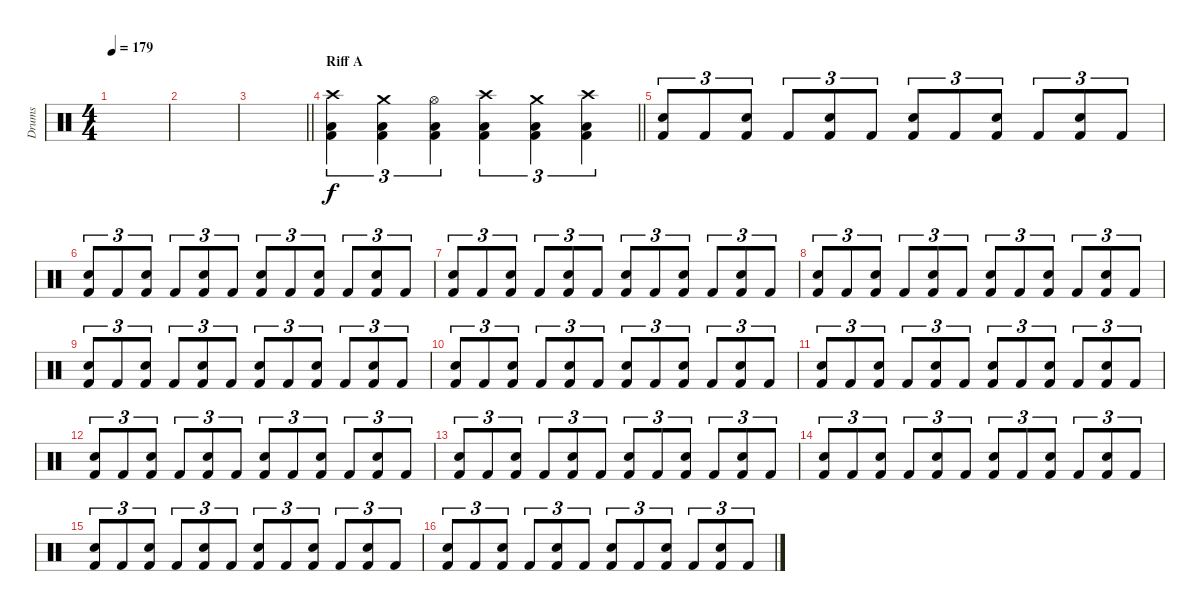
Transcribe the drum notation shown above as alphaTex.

\track ("Drums" "Drums") {instrument percussion}
\staff {score}
\articulation defaults
\ts (4 4)
\tempo 179
\clef neutral
\ks c
|
|
\barLineRight lightlight
|
\section ("" "Riff A")
\barLineRight lightlight
("Crash high (hit)" "Low Floor Tom (hit)" "Kick (hit) 2").4{tu (3 2)} ("Crash medium (hit)" "Low Floor Tom (hit)" "Kick (hit) 2").4{tu (3 2)} ("Hi-Hat (open)" "Low Floor Tom (hit)" "Kick (hit) 2").4{tu (3 2)} ("Crash high (hit)" "Low Floor Tom (hit)" "Kick (hit) 2").4{tu (3 2)} ("Crash medium (hit)" "Low Floor Tom (hit)" "Kick (hit) 2").4{tu (3 2)} ("Crash high (hit)" "Low Floor Tom (hit)" "Kick (hit) 2").4{tu (3 2)} |
("Electric Snare (hit)" "Kick (hit) 2").8{tu (3 2)} "Kick (hit) 2".8{tu (3 2)} ("Electric Snare (hit)" "Kick (hit) 2").8{tu (3 2)} "Kick (hit) 2".8{tu (3 2)} ("Electric Snare (hit)" "Kick (hit) 2").8{tu (3 2)} "Kick (hit) 2".8{tu (3 2)} ("Electric Snare (hit)" "Kick (hit) 2").8{tu (3 2)} "Kick (hit) 2".8{tu (3 2)} ("Electric Snare (hit)" "Kick (hit) 2").8{tu (3 2)} "Kick (hit) 2".8{tu (3 2)} ("Electric Snare (hit)" "Kick (hit) 2").8{tu (3 2)} "Kick (hit) 2".8{tu (3 2)} |
("Electric Snare (hit)" "Kick (hit) 2").8{tu (3 2)} "Kick (hit) 2".8{tu (3 2)} ("Electric Snare (hit)" "Kick (hit) 2").8{tu (3 2)} "Kick (hit) 2".8{tu (3 2)} ("Electric Snare (hit)" "Kick (hit) 2").8{tu (3 2)} "Kick (hit) 2".8{tu (3 2)} ("Electric Snare (hit)" "Kick (hit) 2").8{tu (3 2)} "Kick (hit) 2".8{tu (3 2)} ("Electric Snare (hit)" "Kick (hit) 2").8{tu (3 2)} "Kick (hit) 2".8{tu (3 2)} ("Electric Snare (hit)" "Kick (hit) 2").8{tu (3 2)} "Kick (hit) 2".8{tu (3 2)} |
("Electric Snare (hit)" "Kick (hit) 2").8{tu (3 2)} "Kick (hit) 2".8{tu (3 2)} ("Electric Snare (hit)" "Kick (hit) 2").8{tu (3 2)} "Kick (hit) 2".8{tu (3 2)} ("Electric Snare (hit)" "Kick (hit) 2").8{tu (3 2)} "Kick (hit) 2".8{tu (3 2)} ("Electric Snare (hit)" "Kick (hit) 2").8{tu (3 2)} "Kick (hit) 2".8{tu (3 2)} ("Electric Snare (hit)" "Kick (hit) 2").8{tu (3 2)} "Kick (hit) 2".8{tu (3 2)} ("Electric Snare (hit)" "Kick (hit) 2").8{tu (3 2)} "Kick (hit) 2".8{tu (3 2)} |
("Electric Snare (hit)" "Kick (hit) 2").8{tu (3 2)} "Kick (hit) 2".8{tu (3 2)} ("Electric Snare (hit)" "Kick (hit) 2").8{tu (3 2)} "Kick (hit) 2".8{tu (3 2)} ("Electric Snare (hit)" "Kick (hit) 2").8{tu (3 2)} "Kick (hit) 2".8{tu (3 2)} ("Electric Snare (hit)" "Kick (hit) 2").8{tu (3 2)} "Kick (hit) 2".8{tu (3 2)} ("Electric Snare (hit)" "Kick (hit) 2").8{tu (3 2)} "Kick (hit) 2".8{tu (3 2)} ("Electric Snare (hit)" "Kick (hit) 2").8{tu (3 2)} "Kick (hit) 2".8{tu (3 2)} |
("Electric Snare (hit)" "Kick (hit) 2").8{tu (3 2)} "Kick (hit) 2".8{tu (3 2)} ("Electric Snare (hit)" "Kick (hit) 2").8{tu (3 2)} "Kick (hit) 2".8{tu (3 2)} ("Electric Snare (hit)" "Kick (hit) 2").8{tu (3 2)} "Kick (hit) 2".8{tu (3 2)} ("Electric Snare (hit)" "Kick (hit) 2").8{tu (3 2)} "Kick (hit) 2".8{tu (3 2)} ("Electric Snare (hit)" "Kick (hit) 2").8{tu (3 2)} "Kick (hit) 2".8{tu (3 2)} ("Electric Snare (hit)" "Kick (hit) 2").8{tu (3 2)} "Kick (hit) 2".8{tu (3 2)} |
("Electric Snare (hit)" "Kick (hit) 2").8{tu (3 2)} "Kick (hit) 2".8{tu (3 2)} ("Electric Snare (hit)" "Kick (hit) 2").8{tu (3 2)} "Kick (hit) 2".8{tu (3 2)} ("Electric Snare (hit)" "Kick (hit) 2").8{tu (3 2)} "Kick (hit) 2".8{tu (3 2)} ("Electric Snare (hit)" "Kick (hit) 2").8{tu (3 2)} "Kick (hit) 2".8{tu (3 2)} ("Electric Snare (hit)" "Kick (hit) 2").8{tu (3 2)} "Kick (hit) 2".8{tu (3 2)} ("Electric Snare (hit)" "Kick (hit) 2").8{tu (3 2)} "Kick (hit) 2".8{tu (3 2)} |
("Electric Snare (hit)" "Kick (hit) 2").8{tu (3 2)} "Kick (hit) 2".8{tu (3 2)} ("Electric Snare (hit)" "Kick (hit) 2").8{tu (3 2)} "Kick (hit) 2".8{tu (3 2)} ("Electric Snare (hit)" "Kick (hit) 2").8{tu (3 2)} "Kick (hit) 2".8{tu (3 2)} ("Electric Snare (hit)" "Kick (hit) 2").8{tu (3 2)} "Kick (hit) 2".8{tu (3 2)} ("Electric Snare (hit)" "Kick (hit) 2").8{tu (3 2)} "Kick (hit) 2".8{tu (3 2)} ("Electric Snare (hit)" "Kick (hit) 2").8{tu (3 2)} "Kick (hit) 2".8{tu (3 2)} |
("Electric Snare (hit)" "Kick (hit) 2").8{tu (3 2)} "Kick (hit) 2".8{tu (3 2)} ("Electric Snare (hit)" "Kick (hit) 2").8{tu (3 2)} "Kick (hit) 2".8{tu (3 2)} ("Electric Snare (hit)" "Kick (hit) 2").8{tu (3 2)} "Kick (hit) 2".8{tu (3 2)} ("Electric Snare (hit)" "Kick (hit) 2").8{tu (3 2)} "Kick (hit) 2".8{tu (3 2)} ("Electric Snare (hit)" "Kick (hit) 2").8{tu (3 2)} "Kick (hit) 2".8{tu (3 2)} ("Electric Snare (hit)" "Kick (hit) 2").8{tu (3 2)} "Kick (hit) 2".8{tu (3 2)} |
("Electric Snare (hit)" "Kick (hit) 2").8{tu (3 2)} "Kick (hit) 2".8{tu (3 2)} ("Electric Snare (hit)" "Kick (hit) 2").8{tu (3 2)} "Kick (hit) 2".8{tu (3 2)} ("Electric Snare (hit)" "Kick (hit) 2").8{tu (3 2)} "Kick (hit) 2".8{tu (3 2)} ("Electric Snare (hit)" "Kick (hit) 2").8{tu (3 2)} "Kick (hit) 2".8{tu (3 2)} ("Electric Snare (hit)" "Kick (hit) 2").8{tu (3 2)} "Kick (hit) 2".8{tu (3 2)} ("Electric Snare (hit)" "Kick (hit) 2").8{tu (3 2)} "Kick (hit) 2".8{tu (3 2)} |
("Electric Snare (hit)" "Kick (hit) 2").8{tu (3 2)} "Kick (hit) 2".8{tu (3 2)} ("Electric Snare (hit)" "Kick (hit) 2").8{tu (3 2)} "Kick (hit) 2".8{tu (3 2)} ("Electric Snare (hit)" "Kick (hit) 2").8{tu (3 2)} "Kick (hit) 2".8{tu (3 2)} ("Electric Snare (hit)" "Kick (hit) 2").8{tu (3 2)} "Kick (hit) 2".8{tu (3 2)} ("Electric Snare (hit)" "Kick (hit) 2").8{tu (3 2)} "Kick (hit) 2".8{tu (3 2)} ("Electric Snare (hit)" "Kick (hit) 2").8{tu (3 2)} "Kick (hit) 2".8{tu (3 2)} |
("Electric Snare (hit)" "Kick (hit) 2").8{tu (3 2)} "Kick (hit) 2".8{tu (3 2)} ("Electric Snare (hit)" "Kick (hit) 2").8{tu (3 2)} "Kick (hit) 2".8{tu (3 2)} ("Electric Snare (hit)" "Kick (hit) 2").8{tu (3 2)} "Kick (hit) 2".8{tu (3 2)} ("Electric Snare (hit)" "Kick (hit) 2").8{tu (3 2)} "Kick (hit) 2".8{tu (3 2)} ("Electric Snare (hit)" "Kick (hit) 2").8{tu (3 2)} "Kick (hit) 2".8{tu (3 2)} ("Electric Snare (hit)" "Kick (hit) 2").8{tu (3 2)} "Kick (hit) 2".8{tu (3 2)} |
("Electric Snare (hit)" "Kick (hit) 2").8{tu (3 2)} "Kick (hit) 2".8{tu (3 2)} ("Electric Snare (hit)" "Kick (hit) 2").8{tu (3 2)} "Kick (hit) 2".8{tu (3 2)} ("Electric Snare (hit)" "Kick (hit) 2").8{tu (3 2)} "Kick (hit) 2".8{tu (3 2)} ("Electric Snare (hit)" "Kick (hit) 2").8{tu (3 2)} "Kick (hit) 2".8{tu (3 2)} ("Electric Snare (hit)" "Kick (hit) 2").8{tu (3 2)} "Kick (hit) 2".8{tu (3 2)} ("Electric Snare (hit)" "Kick (hit) 2").8{tu (3 2)} "Kick (hit) 2".8{tu (3 2)}
